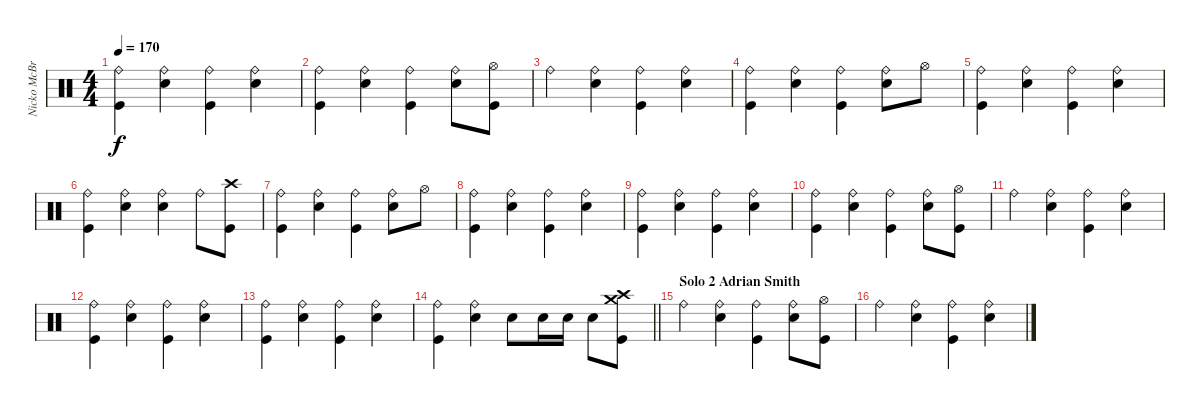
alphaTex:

\track ("Nicko McBrain" "Nicko McBr") {instrument percussion}
\staff {score}
\articulation defaults
\ts (4 4)
\tempo 170
\clef neutral
\ks c
("Ride (bell)" "Kick (hit)").4{dy f} ("Ride (bell)" "Snare (hit) 2").4 ("Ride (bell)" "Kick (hit)").4 ("Ride (bell)" "Snare (hit) 2").4 |
("Ride (bell)" "Kick (hit)").4 ("Ride (bell)" "Snare (hit) 2").4 ("Ride (bell)" "Kick (hit)").4 ("Ride (bell)" "Snare (hit) 2").8 ("Hi-Hat (open)" "Kick (hit)").8 |
"Ride (bell)".4 ("Ride (bell)" "Snare (hit) 2").4 ("Ride (bell)" "Kick (hit)").4 ("Ride (bell)" "Snare (hit) 2").4 |
("Ride (bell)" "Kick (hit)").4 ("Ride (bell)" "Snare (hit) 2").4 ("Ride (bell)" "Kick (hit)").4 ("Ride (bell)" "Snare (hit) 2").8 "Hi-Hat (open)".8 |
("Ride (bell)" "Kick (hit)").4 ("Ride (bell)" "Snare (hit) 2").4 ("Ride (bell)" "Kick (hit)").4 ("Ride (bell)" "Snare (hit) 2").4 |
("Ride (bell)" "Kick (hit)").4 ("Ride (bell)" "Snare (hit) 2").4 ("Ride (bell)" "Snare (hit) 2").4 "Ride (bell)".8 ("Crash high (hit)" "Kick (hit)").8 |
("Ride (bell)" "Kick (hit)").4 ("Ride (bell)" "Snare (hit) 2").4 ("Ride (bell)" "Kick (hit)").4 ("Ride (bell)" "Snare (hit) 2").8 "Hi-Hat (open)".8 |
("Ride (bell)" "Kick (hit)").4 ("Ride (bell)" "Snare (hit) 2").4 ("Ride (bell)" "Kick (hit)").4 ("Ride (bell)" "Snare (hit) 2").4 |
("Ride (bell)" "Kick (hit)").4 ("Ride (bell)" "Snare (hit) 2").4 ("Ride (bell)" "Kick (hit)").4 ("Ride (bell)" "Snare (hit) 2").4 |
("Ride (bell)" "Kick (hit)").4 ("Ride (bell)" "Snare (hit) 2").4 ("Ride (bell)" "Kick (hit)").4 ("Ride (bell)" "Snare (hit) 2").8 ("Hi-Hat (open)" "Kick (hit)").8 |
"Ride (bell)".4 ("Ride (bell)" "Snare (hit) 2").4 ("Ride (bell)" "Kick (hit)").4 ("Ride (bell)" "Snare (hit) 2").4 |
("Ride (bell)" "Kick (hit)").4 ("Ride (bell)" "Snare (hit) 2").4 ("Ride (bell)" "Kick (hit)").4 ("Ride (bell)" "Snare (hit) 2").4 |
("Ride (bell)" "Kick (hit)").4 ("Ride (bell)" "Snare (hit) 2").4 ("Ride (bell)" "Kick (hit)").4 ("Ride (bell)" "Snare (hit) 2").4 |
\barLineRight lightlight
("Ride (bell)" "Kick (hit)").4 ("Ride (bell)" "Snare (hit) 2").4 "Snare (hit) 2".8 "Snare (hit) 2".16 "Snare (hit) 2".16 "Snare (hit) 2".8 ("Crash medium (hit)" "Crash high (hit)" "Kick (hit)").8 |
\section ("" "Solo 2 Adrian Smith")
"Ride (bell)".4 ("Ride (bell)" "Snare (hit) 2").4 ("Ride (bell)" "Kick (hit)").4 ("Ride (bell)" "Snare (hit) 2").8 ("Hi-Hat (open)" "Kick (hit)").8 |
"Ride (bell)".4 ("Ride (bell)" "Snare (hit) 2").4 ("Ride (bell)" "Kick (hit)").4 ("Ride (bell)" "Snare (hit) 2").4
